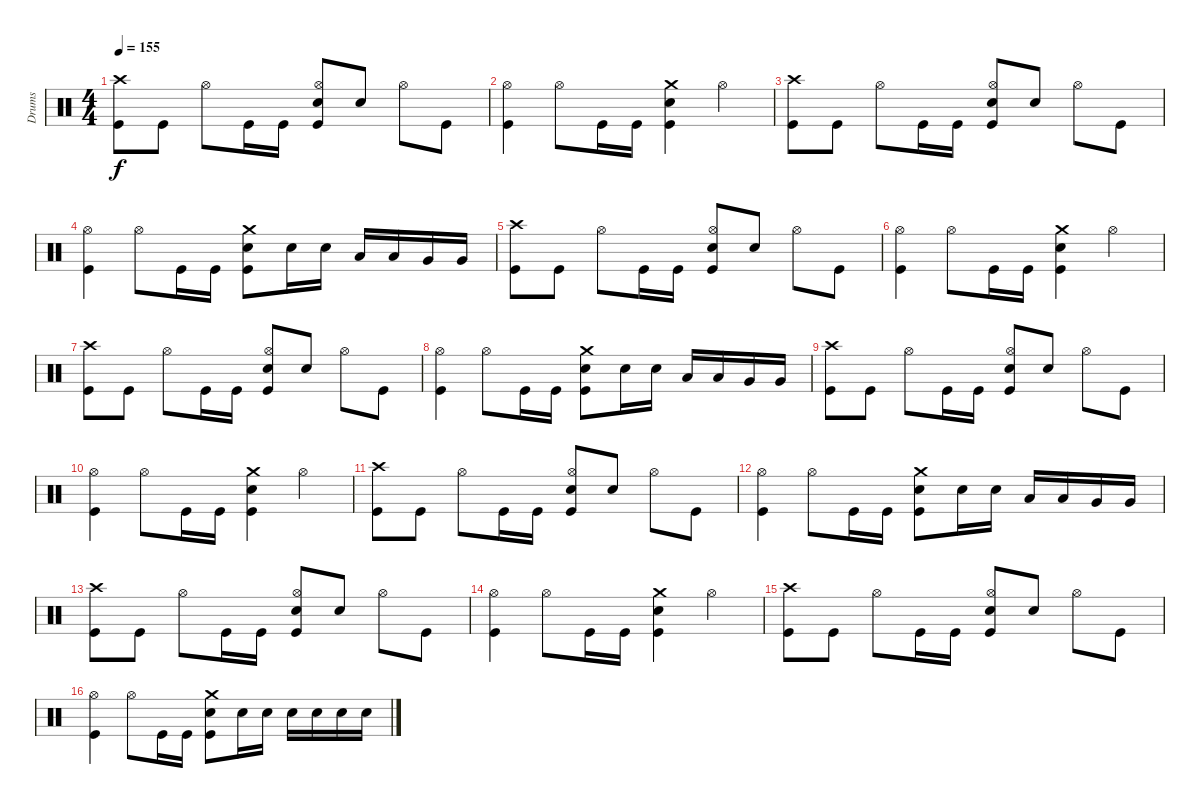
\track ("Drums" "Drums") {instrument percussion}
\staff {score}
\articulation defaults
\ts (4 4)
\tempo 155
\clef neutral
\ks c
("Crash high (hit)" "Kick (hit)").8{dy f} "Kick (hit)".8 "Hi-Hat (open)".8 "Kick (hit)".16 "Kick (hit)".16 ("Hi-Hat (open)" "Snare (hit) 2" "Kick (hit)").8 "Snare (hit) 2".8 "Hi-Hat (open)".8 "Kick (hit)".8 |
("Hi-Hat (open)" "Kick (hit)").4 "Hi-Hat (open)".8 "Kick (hit)".16 "Kick (hit)".16 ("Crash medium (hit)" "Snare (hit) 2" "Kick (hit)").4 "Hi-Hat (open)".4 |
("Crash high (hit)" "Kick (hit)").8 "Kick (hit)".8 "Hi-Hat (open)".8 "Kick (hit)".16 "Kick (hit)".16 ("Hi-Hat (open)" "Snare (hit) 2" "Kick (hit)").8 "Snare (hit) 2".8 "Hi-Hat (open)".8 "Kick (hit)".8 |
("Hi-Hat (open)" "Kick (hit)").4 "Hi-Hat (open)".8 "Kick (hit)".16 "Kick (hit)".16 ("Crash medium (hit)" "Snare (hit) 2" "Kick (hit)").8 "Snare (hit) 2".16 "Snare (hit) 2".16 "Low Tom (hit)".16 "Low Tom (hit)".16 "Very Low Tom (hit)".16 "Very Low Tom (hit)".16 |
("Crash high (hit)" "Kick (hit)").8 "Kick (hit)".8 "Hi-Hat (open)".8 "Kick (hit)".16 "Kick (hit)".16 ("Hi-Hat (open)" "Snare (hit) 2" "Kick (hit)").8 "Snare (hit) 2".8 "Hi-Hat (open)".8 "Kick (hit)".8 |
("Hi-Hat (open)" "Kick (hit)").4 "Hi-Hat (open)".8 "Kick (hit)".16 "Kick (hit)".16 ("Crash medium (hit)" "Snare (hit) 2" "Kick (hit)").4 "Hi-Hat (open)".4 |
("Crash high (hit)" "Kick (hit)").8 "Kick (hit)".8 "Hi-Hat (open)".8 "Kick (hit)".16 "Kick (hit)".16 ("Hi-Hat (open)" "Snare (hit) 2" "Kick (hit)").8 "Snare (hit) 2".8 "Hi-Hat (open)".8 "Kick (hit)".8 |
("Hi-Hat (open)" "Kick (hit)").4 "Hi-Hat (open)".8 "Kick (hit)".16 "Kick (hit)".16 ("Crash medium (hit)" "Snare (hit) 2" "Kick (hit)").8 "Snare (hit) 2".16 "Snare (hit) 2".16 "Low Tom (hit)".16 "Low Tom (hit)".16 "Very Low Tom (hit)".16 "Very Low Tom (hit)".16 |
("Crash high (hit)" "Kick (hit)").8 "Kick (hit)".8 "Hi-Hat (open)".8 "Kick (hit)".16 "Kick (hit)".16 ("Hi-Hat (open)" "Snare (hit) 2" "Kick (hit)").8 "Snare (hit) 2".8 "Hi-Hat (open)".8 "Kick (hit)".8 |
("Hi-Hat (open)" "Kick (hit)").4 "Hi-Hat (open)".8 "Kick (hit)".16 "Kick (hit)".16 ("Crash medium (hit)" "Snare (hit) 2" "Kick (hit)").4 "Hi-Hat (open)".4 |
("Crash high (hit)" "Kick (hit)").8 "Kick (hit)".8 "Hi-Hat (open)".8 "Kick (hit)".16 "Kick (hit)".16 ("Hi-Hat (open)" "Snare (hit) 2" "Kick (hit)").8 "Snare (hit) 2".8 "Hi-Hat (open)".8 "Kick (hit)".8 |
("Hi-Hat (open)" "Kick (hit)").4 "Hi-Hat (open)".8 "Kick (hit)".16 "Kick (hit)".16 ("Crash medium (hit)" "Snare (hit) 2" "Kick (hit)").8 "Snare (hit) 2".16 "Snare (hit) 2".16 "Low Tom (hit)".16 "Low Tom (hit)".16 "Very Low Tom (hit)".16 "Very Low Tom (hit)".16 |
("Crash high (hit)" "Kick (hit)").8 "Kick (hit)".8 "Hi-Hat (open)".8 "Kick (hit)".16 "Kick (hit)".16 ("Hi-Hat (open)" "Snare (hit) 2" "Kick (hit)").8 "Snare (hit) 2".8 "Hi-Hat (open)".8 "Kick (hit)".8 |
("Hi-Hat (open)" "Kick (hit)").4 "Hi-Hat (open)".8 "Kick (hit)".16 "Kick (hit)".16 ("Crash medium (hit)" "Snare (hit) 2" "Kick (hit)").4 "Hi-Hat (open)".4 |
("Crash high (hit)" "Kick (hit)").8 "Kick (hit)".8 "Hi-Hat (open)".8 "Kick (hit)".16 "Kick (hit)".16 ("Hi-Hat (open)" "Snare (hit) 2" "Kick (hit)").8 "Snare (hit) 2".8 "Hi-Hat (open)".8 "Kick (hit)".8 |
("Hi-Hat (open)" "Kick (hit)").4 "Hi-Hat (open)".8 "Kick (hit)".16 "Kick (hit)".16 ("Crash medium (hit)" "Snare (hit) 2" "Kick (hit)").8 "Snare (hit) 2".16 "Snare (hit) 2".16 "Snare (hit) 2".16 "Snare (hit) 2".16 "Snare (hit) 2".16 "Snare (hit) 2".16
